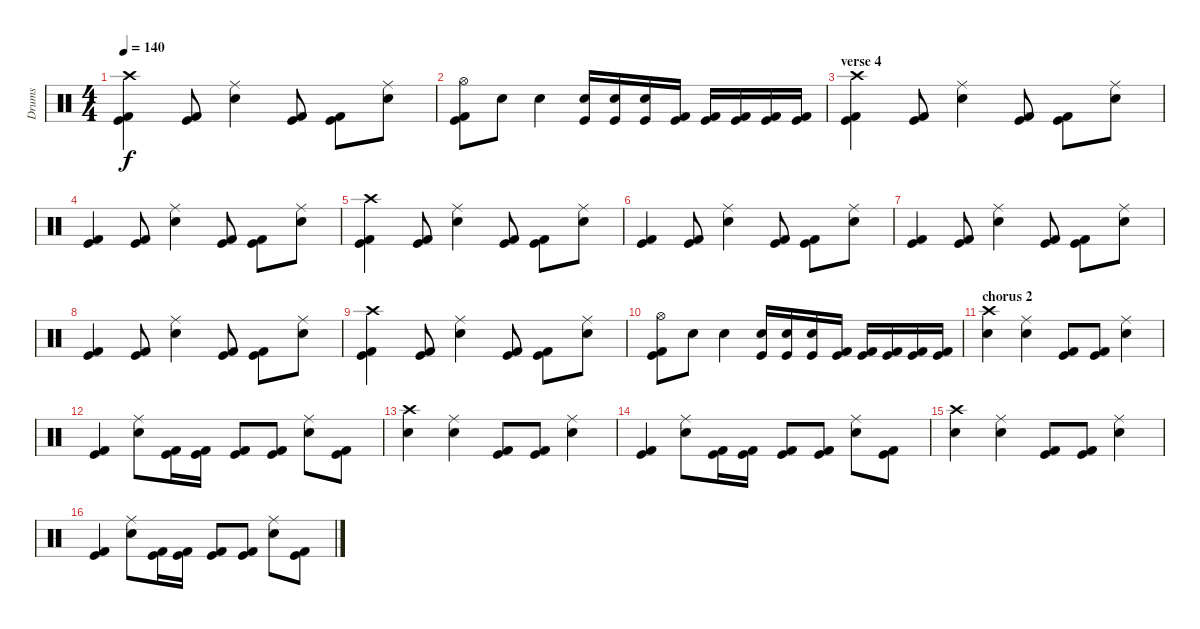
\track ("Drums" "Drums") {instrument percussion}
\staff {score}
\articulation defaults
\ts (4 4)
\tempo 140
\clef neutral
\ks c
("Crash high (hit)" "Kick (hit)" "Kick (hit) 2").4{dy f} ("Kick (hit)" "Kick (hit) 2").8 ("Ride (middle)" "Electric Snare (hit)").4 ("Kick (hit)" "Kick (hit) 2").8 ("Kick (hit)" "Kick (hit) 2").8 ("Ride (middle)" "Electric Snare (hit)").8 |
("Hi-Hat (open)" "Kick (hit)" "Kick (hit) 2").8 "Electric Snare (hit)".8 "Electric Snare (hit)".4 ("Kick (hit)" "Snare (hit) 2").16 ("Kick (hit)" "Snare (hit) 2").16 ("Kick (hit)" "Snare (hit) 2").16 ("Kick (hit)" "Kick (hit) 2").16 ("Kick (hit)" "Kick (hit) 2").16 ("Kick (hit)" "Kick (hit) 2").16 ("Kick (hit)" "Kick (hit) 2").16 ("Kick (hit)" "Kick (hit) 2").16 |
\section ("" "verse 4")
("Crash high (hit)" "Kick (hit)" "Kick (hit) 2").4 ("Kick (hit)" "Kick (hit) 2").8 ("Ride (middle)" "Electric Snare (hit)").4 ("Kick (hit)" "Kick (hit) 2").8 ("Kick (hit)" "Kick (hit) 2").8 ("Ride (middle)" "Electric Snare (hit)").8 |
("Kick (hit)" "Kick (hit) 2").4 ("Kick (hit)" "Kick (hit) 2").8 ("Ride (middle)" "Electric Snare (hit)").4 ("Kick (hit)" "Kick (hit) 2").8 ("Kick (hit)" "Kick (hit) 2").8 ("Ride (middle)" "Electric Snare (hit)").8 |
("Crash high (hit)" "Kick (hit)" "Kick (hit) 2").4 ("Kick (hit)" "Kick (hit) 2").8 ("Ride (middle)" "Electric Snare (hit)").4 ("Kick (hit)" "Kick (hit) 2").8 ("Kick (hit)" "Kick (hit) 2").8 ("Ride (middle)" "Electric Snare (hit)").8 |
("Kick (hit)" "Kick (hit) 2").4 ("Kick (hit)" "Kick (hit) 2").8 ("Ride (middle)" "Electric Snare (hit)").4 ("Kick (hit)" "Kick (hit) 2").8 ("Kick (hit)" "Kick (hit) 2").8 ("Ride (middle)" "Electric Snare (hit)").8 |
("Kick (hit)" "Kick (hit) 2").4 ("Kick (hit)" "Kick (hit) 2").8 ("Ride (middle)" "Electric Snare (hit)").4 ("Kick (hit)" "Kick (hit) 2").8 ("Kick (hit)" "Kick (hit) 2").8 ("Ride (middle)" "Electric Snare (hit)").8 |
("Kick (hit)" "Kick (hit) 2").4 ("Kick (hit)" "Kick (hit) 2").8 ("Ride (middle)" "Electric Snare (hit)").4 ("Kick (hit)" "Kick (hit) 2").8 ("Kick (hit)" "Kick (hit) 2").8 ("Ride (middle)" "Electric Snare (hit)").8 |
("Crash high (hit)" "Kick (hit)" "Kick (hit) 2").4 ("Kick (hit)" "Kick (hit) 2").8 ("Ride (middle)" "Electric Snare (hit)").4 ("Kick (hit)" "Kick (hit) 2").8 ("Kick (hit)" "Kick (hit) 2").8 ("Ride (middle)" "Electric Snare (hit)").8 |
("Hi-Hat (open)" "Kick (hit)" "Kick (hit) 2").8 "Electric Snare (hit)".8 "Electric Snare (hit)".4 ("Kick (hit)" "Snare (hit) 2").16 ("Kick (hit)" "Snare (hit) 2").16 ("Kick (hit)" "Snare (hit) 2").16 ("Kick (hit)" "Kick (hit) 2").16 ("Kick (hit)" "Kick (hit) 2").16 ("Kick (hit)" "Kick (hit) 2").16 ("Kick (hit)" "Kick (hit) 2").16 ("Kick (hit)" "Kick (hit) 2").16 |
\section ("" "chorus 2")
("Crash high (hit)" "Electric Snare (hit)").4 ("Ride (middle)" "Electric Snare (hit)").4 ("Kick (hit)" "Kick (hit) 2").8 ("Kick (hit)" "Kick (hit) 2").8 ("Ride (middle)" "Electric Snare (hit)").4 |
("Kick (hit)" "Kick (hit) 2").4 ("Ride (middle)" "Electric Snare (hit)").8 ("Kick (hit)" "Kick (hit) 2").16 ("Kick (hit)" "Kick (hit) 2").16 ("Kick (hit)" "Kick (hit) 2").8 ("Kick (hit)" "Kick (hit) 2").8 ("Ride (middle)" "Electric Snare (hit)").8 ("Kick (hit)" "Kick (hit) 2").8 |
("Crash high (hit)" "Electric Snare (hit)").4 ("Ride (middle)" "Electric Snare (hit)").4 ("Kick (hit)" "Kick (hit) 2").8 ("Kick (hit)" "Kick (hit) 2").8 ("Ride (middle)" "Electric Snare (hit)").4 |
("Kick (hit)" "Kick (hit) 2").4 ("Ride (middle)" "Electric Snare (hit)").8 ("Kick (hit)" "Kick (hit) 2").16 ("Kick (hit)" "Kick (hit) 2").16 ("Kick (hit)" "Kick (hit) 2").8 ("Kick (hit)" "Kick (hit) 2").8 ("Ride (middle)" "Electric Snare (hit)").8 ("Kick (hit)" "Kick (hit) 2").8 |
("Crash high (hit)" "Electric Snare (hit)").4 ("Ride (middle)" "Electric Snare (hit)").4 ("Kick (hit)" "Kick (hit) 2").8 ("Kick (hit)" "Kick (hit) 2").8 ("Ride (middle)" "Electric Snare (hit)").4 |
("Kick (hit)" "Kick (hit) 2").4 ("Ride (middle)" "Electric Snare (hit)").8 ("Kick (hit)" "Kick (hit) 2").16 ("Kick (hit)" "Kick (hit) 2").16 ("Kick (hit)" "Kick (hit) 2").8 ("Kick (hit)" "Kick (hit) 2").8 ("Ride (middle)" "Electric Snare (hit)").8 ("Kick (hit)" "Kick (hit) 2").8
